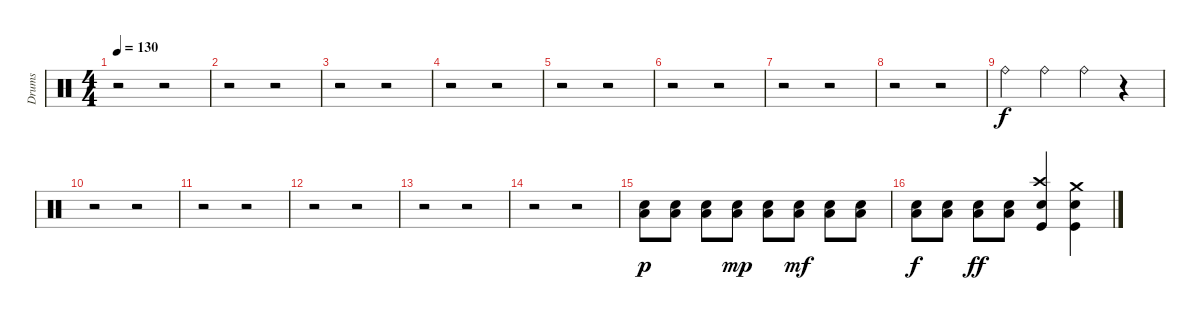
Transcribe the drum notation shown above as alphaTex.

\track ("Drums" "Drums") {instrument percussion}
\staff {score}
\articulation defaults
\ts (4 4)
\tempo 130
\clef neutral
\ks c
r.2{dy f} r.2 |
r.2 r.2 |
r.2 r.2 |
r.2 r.2 |
r.2 r.2 |
r.2 r.2 |
r.2 r.2 |
r.2 r.2 |
"Ride (bell)".4 "Ride (bell)".4 "Ride (bell)".4 r.4 |
r.2 r.2 |
r.2 r.2 |
r.2 r.2 |
r.2 r.2 |
r.2 r.2 |
("Low Floor Tom (hit)" "Electric Snare (hit)").8{dy p} ("Low Floor Tom (hit)" "Electric Snare (hit)").8 ("Low Floor Tom (hit)" "Electric Snare (hit)").8 ("Low Floor Tom (hit)" "Electric Snare (hit)").8{dy mp} ("Low Floor Tom (hit)" "Electric Snare (hit)").8 ("Low Floor Tom (hit)" "Electric Snare (hit)").8{dy mf} ("Low Floor Tom (hit)" "Electric Snare (hit)").8 ("Low Floor Tom (hit)" "Electric Snare (hit)").8 |
("Low Floor Tom (hit)" "Electric Snare (hit)").8{dy f} ("Low Floor Tom (hit)" "Electric Snare (hit)").8 ("Low Floor Tom (hit)" "Electric Snare (hit)").8{dy ff} ("Low Floor Tom (hit)" "Electric Snare (hit)").8 ("Crash high (hit)" "Electric Snare (hit)" "Kick (hit)").4 ("Crash medium (hit)" "Electric Snare (hit)" "Kick (hit)").4
